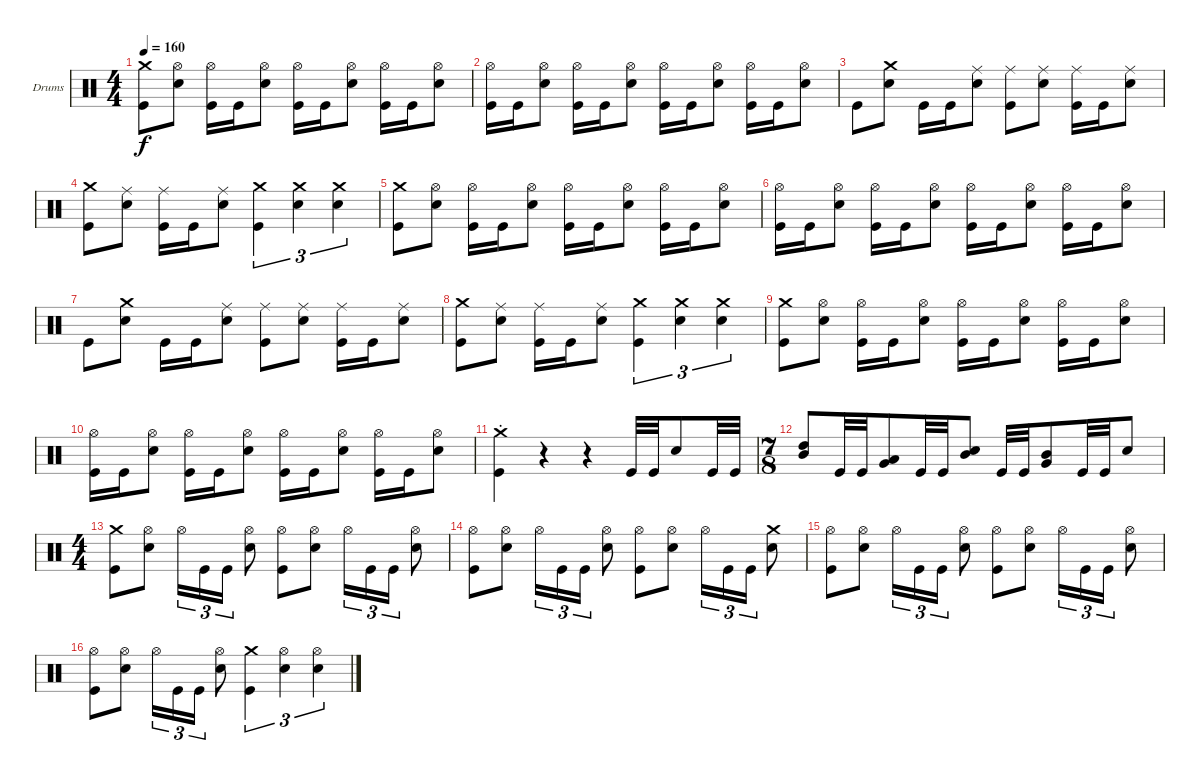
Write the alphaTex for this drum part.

\bracketExtendMode groupsimilarinstruments
\firstSystemTrackNameOrientation horizontal
\otherSystemsTrackNameOrientation horizontal
\track ("Drums" "Drums") {instrument percussion}
\staff {score}
\articulation defaults
\ts (4 4)
\tempo 160
\clef neutral
\ks c
("Crash medium (hit)" "Kick (hit)").8{dy f} ("Hi-Hat (open)" "Snare (hit) 2").8 ("Hi-Hat (open)" "Kick (hit)").16 "Kick (hit)".16 ("Hi-Hat (open)" "Snare (hit) 2").8 ("Hi-Hat (open)" "Kick (hit)").16 "Kick (hit)".16 ("Hi-Hat (open)" "Snare (hit) 2").8 ("Hi-Hat (open)" "Kick (hit)").16 "Kick (hit)".16 ("Hi-Hat (open)" "Snare (hit) 2").8 |
("Hi-Hat (open)" "Kick (hit)").16 "Kick (hit)".16 ("Hi-Hat (open)" "Snare (hit) 2").8 ("Hi-Hat (open)" "Kick (hit)").16 "Kick (hit)".16 ("Hi-Hat (open)" "Snare (hit) 2").8 ("Hi-Hat (open)" "Kick (hit)").16 "Kick (hit)".16 ("Hi-Hat (open)" "Snare (hit) 2").8 ("Hi-Hat (open)" "Kick (hit)").16 "Kick (hit)".16 ("Hi-Hat (open)" "Snare (hit) 2").8 |
"Kick (hit)".8 ("Crash medium (hit)" "Snare (hit) 2").8 "Kick (hit)".16 "Kick (hit)".16 ("Ride (middle)" "Snare (hit) 2").8 ("Ride (middle)" "Kick (hit)").8 ("Ride (middle)" "Snare (hit) 2").8 ("Ride (middle)" "Kick (hit)").16 "Kick (hit)".16 ("Ride (middle)" "Snare (hit) 2").8 |
("Crash medium (hit)" "Kick (hit)").8 ("Ride (middle)" "Snare (hit) 2").8 ("Ride (middle)" "Kick (hit)").16 "Kick (hit)".16 ("Ride (middle)" "Snare (hit) 2").8 ("Crash medium (hit)" "Kick (hit)").4{tu (3 2)} ("Crash medium (hit)" "Snare (hit) 2").4{tu (3 2)} ("Crash medium (hit)" "Snare (hit) 2").4{tu (3 2)} |
("Crash medium (hit)" "Kick (hit)").8 ("Hi-Hat (open)" "Snare (hit) 2").8 ("Hi-Hat (open)" "Kick (hit)").16 "Kick (hit)".16 ("Hi-Hat (open)" "Snare (hit) 2").8 ("Hi-Hat (open)" "Kick (hit)").16 "Kick (hit)".16 ("Hi-Hat (open)" "Snare (hit) 2").8 ("Hi-Hat (open)" "Kick (hit)").16 "Kick (hit)".16 ("Hi-Hat (open)" "Snare (hit) 2").8 |
("Hi-Hat (open)" "Kick (hit)").16 "Kick (hit)".16 ("Hi-Hat (open)" "Snare (hit) 2").8 ("Hi-Hat (open)" "Kick (hit)").16 "Kick (hit)".16 ("Hi-Hat (open)" "Snare (hit) 2").8 ("Hi-Hat (open)" "Kick (hit)").16 "Kick (hit)".16 ("Hi-Hat (open)" "Snare (hit) 2").8 ("Hi-Hat (open)" "Kick (hit)").16 "Kick (hit)".16 ("Hi-Hat (open)" "Snare (hit) 2").8 |
"Kick (hit)".8 ("Crash medium (hit)" "Snare (hit) 2").8 "Kick (hit)".16 "Kick (hit)".16 ("Ride (middle)" "Snare (hit) 2").8 ("Ride (middle)" "Kick (hit)").8 ("Ride (middle)" "Snare (hit) 2").8 ("Ride (middle)" "Kick (hit)").16 "Kick (hit)".16 ("Ride (middle)" "Snare (hit) 2").8 |
("Crash medium (hit)" "Kick (hit)").8 ("Ride (middle)" "Snare (hit) 2").8 ("Ride (middle)" "Kick (hit)").16 "Kick (hit)".16 ("Ride (middle)" "Snare (hit) 2").8 ("Crash medium (hit)" "Kick (hit)").4{tu (3 2)} ("Crash medium (hit)" "Snare (hit) 2").4{tu (3 2)} ("Crash medium (hit)" "Snare (hit) 2").4{tu (3 2)} |
("Crash medium (hit)" "Kick (hit)").8 ("Hi-Hat (open)" "Snare (hit) 2").8 ("Hi-Hat (open)" "Kick (hit)").16 "Kick (hit)".16 ("Hi-Hat (open)" "Snare (hit) 2").8 ("Hi-Hat (open)" "Kick (hit)").16 "Kick (hit)".16 ("Hi-Hat (open)" "Snare (hit) 2").8 ("Hi-Hat (open)" "Kick (hit)").16 "Kick (hit)".16 ("Hi-Hat (open)" "Snare (hit) 2").8 |
("Hi-Hat (open)" "Kick (hit)").16 "Kick (hit)".16 ("Hi-Hat (open)" "Snare (hit) 2").8 ("Hi-Hat (open)" "Kick (hit)").16 "Kick (hit)".16 ("Hi-Hat (open)" "Snare (hit) 2").8 ("Hi-Hat (open)" "Kick (hit)").16 "Kick (hit)".16 ("Hi-Hat (open)" "Snare (hit) 2").8 ("Hi-Hat (open)" "Kick (hit)").16 "Kick (hit)".16 ("Hi-Hat (open)" "Snare (hit) 2").8 |
("Crash medium (hit)"{st} "Kick (hit)"{st}).4 r.4 r.4 "Kick (hit)".32 "Kick (hit)".32 "Snare (hit) 2".8 "Kick (hit)".32 "Kick (hit)".32 |
\ts (7 8)
("High Tom (hit)" "Mid Tom (hit)").8 "Kick (hit)".32 "Kick (hit)".32 ("Low Tom (hit)" "Very Low Tom (hit)").8 "Kick (hit)".32 "Kick (hit)".32 ("Snare (hit) 2" "Mid Tom (hit)").8 "Kick (hit)".32 "Kick (hit)".32 ("Mid Tom (hit)" "Very Low Tom (hit)").8 "Kick (hit)".32 "Kick (hit)".32 "Snare (hit) 2".8 |
\ts (4 4)
("Crash medium (hit)" "Kick (hit)").8 ("Hi-Hat (open)" "Snare (hit) 2").8 "Hi-Hat (open)".16{tu (3 2)} "Kick (hit)".16{tu (3 2)} "Kick (hit)".16{tu (3 2)} ("Hi-Hat (open)" "Snare (hit) 2").8 ("Hi-Hat (open)" "Kick (hit)").8 ("Hi-Hat (open)" "Snare (hit) 2").8 "Hi-Hat (open)".16{tu (3 2)} "Kick (hit)".16{tu (3 2)} "Kick (hit)".16{tu (3 2)} ("Hi-Hat (open)" "Snare (hit) 2").8 |
("Hi-Hat (open)" "Kick (hit)").8 ("Hi-Hat (open)" "Snare (hit) 2").8 "Hi-Hat (open)".16{tu (3 2)} "Kick (hit)".16{tu (3 2)} "Kick (hit)".16{tu (3 2)} ("Hi-Hat (open)" "Snare (hit) 2").8 ("Hi-Hat (open)" "Kick (hit)").8 ("Hi-Hat (open)" "Snare (hit) 2").8 "Hi-Hat (open)".16{tu (3 2)} "Kick (hit)".16{tu (3 2)} "Kick (hit)".16{tu (3 2)} ("Crash medium (hit)" "Snare (hit) 2").8 |
("Kick (hit)" "Hi-Hat (open)").8 ("Hi-Hat (open)" "Snare (hit) 2").8 "Hi-Hat (open)".16{tu (3 2)} "Kick (hit)".16{tu (3 2)} "Kick (hit)".16{tu (3 2)} ("Hi-Hat (open)" "Snare (hit) 2").8 ("Hi-Hat (open)" "Kick (hit)").8 ("Hi-Hat (open)" "Snare (hit) 2").8 "Hi-Hat (open)".16{tu (3 2)} "Kick (hit)".16{tu (3 2)} "Kick (hit)".16{tu (3 2)} ("Hi-Hat (open)" "Snare (hit) 2").8 |
("Hi-Hat (open)" "Kick (hit)").8 ("Hi-Hat (open)" "Snare (hit) 2").8 "Hi-Hat (open)".16{tu (3 2)} "Kick (hit)".16{tu (3 2)} "Kick (hit)".16{tu (3 2)} ("Hi-Hat (open)" "Snare (hit) 2").8 ("Crash medium (hit)" "Kick (hit)").4{tu (3 2)} ("Snare (hit) 2" "Hi-Hat (open)").4{tu (3 2)} ("Snare (hit) 2" "Hi-Hat (open)").4{tu (3 2)}
